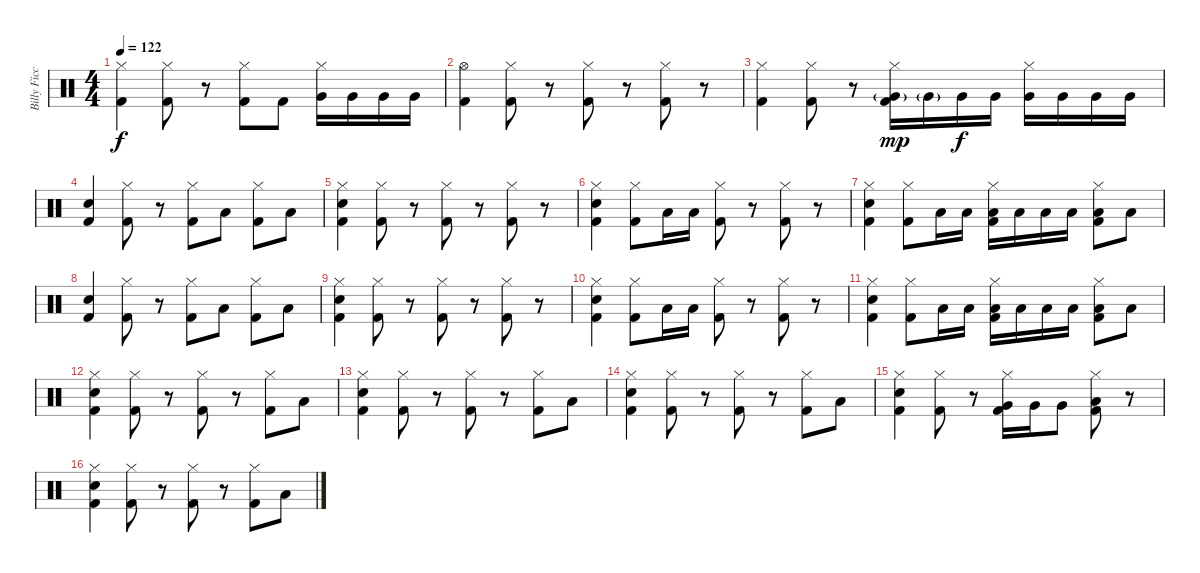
\track ("Billy Ficca" "Billy Ficc") {instrument percussion}
\staff {score}
\articulation defaults
\ts (4 4)
\tempo 122
\clef neutral
\ks c
("Hi-Hat (closed)" "Kick (hit) 2").4{dy f} ("Hi-Hat (closed)" "Kick (hit) 2").8 r.8 ("Hi-Hat (closed)" "Kick (hit) 2").8 "Kick (hit) 2".8 ("Hi-Hat (closed)" "Very Low Tom (hit)").16 "Very Low Tom (hit)".16 "Very Low Tom (hit)".16 "Very Low Tom (hit)".16 |
("Hi-Hat (open)" "Kick (hit) 2").4 ("Hi-Hat (closed)" "Kick (hit) 2").8 r.8 ("Hi-Hat (closed)" "Kick (hit) 2").8 r.8 ("Hi-Hat (closed)" "Kick (hit) 2").8 r.8 |
("Hi-Hat (closed)" "Kick (hit) 2").4 ("Hi-Hat (closed)" "Kick (hit) 2").8 r.8 ("Hi-Hat (closed)" "Very Low Tom (hit)"{g} "Kick (hit) 2").16{dy mp} "Very Low Tom (hit)"{g}.16 "Very Low Tom (hit)".16{dy f} "Very Low Tom (hit)".16 ("Hi-Hat (closed)" "Very Low Tom (hit)").16 "Very Low Tom (hit)".16 "Very Low Tom (hit)".16 "Very Low Tom (hit)".16 |
("Electric Snare (hit)" "Kick (hit) 2").4 ("Hi-Hat (closed)" "Kick (hit) 2").8 r.8 ("Hi-Hat (closed)" "Kick (hit) 2").8 "Low Floor Tom (hit)".8 ("Hi-Hat (closed)" "Kick (hit) 2").8 "Low Floor Tom (hit)".8 |
("Hi-Hat (closed)" "Electric Snare (hit)" "Kick (hit) 2").4 ("Hi-Hat (closed)" "Kick (hit) 2").8 r.8 ("Hi-Hat (closed)" "Kick (hit) 2").8 r.8 ("Hi-Hat (closed)" "Kick (hit) 2").8 r.8 |
("Hi-Hat (closed)" "Electric Snare (hit)" "Kick (hit) 2").4 ("Hi-Hat (closed)" "Kick (hit) 2").8 "Low Floor Tom (hit)".16 "Low Floor Tom (hit)".16 ("Hi-Hat (closed)" "Kick (hit) 2").8 r.8 ("Hi-Hat (closed)" "Kick (hit) 2").8 r.8 |
("Hi-Hat (closed)" "Electric Snare (hit)" "Kick (hit) 2").4 ("Hi-Hat (closed)" "Kick (hit) 2").8 "Low Floor Tom (hit)".16 "Low Floor Tom (hit)".16 ("Hi-Hat (closed)" "Low Floor Tom (hit)" "Kick (hit) 2").16 "Low Floor Tom (hit)".16 "Low Floor Tom (hit)".16 "Low Floor Tom (hit)".16 ("Hi-Hat (closed)" "Low Floor Tom (hit)" "Kick (hit) 2").8 "Low Floor Tom (hit)".8 |
("Electric Snare (hit)" "Kick (hit) 2").4 ("Hi-Hat (closed)" "Kick (hit) 2").8 r.8 ("Hi-Hat (closed)" "Kick (hit) 2").8 "Low Floor Tom (hit)".8 ("Hi-Hat (closed)" "Kick (hit) 2").8 "Low Floor Tom (hit)".8 |
("Hi-Hat (closed)" "Electric Snare (hit)" "Kick (hit) 2").4 ("Hi-Hat (closed)" "Kick (hit) 2").8 r.8 ("Hi-Hat (closed)" "Kick (hit) 2").8 r.8 ("Hi-Hat (closed)" "Kick (hit) 2").8 r.8 |
("Hi-Hat (closed)" "Electric Snare (hit)" "Kick (hit) 2").4 ("Hi-Hat (closed)" "Kick (hit) 2").8 "Low Floor Tom (hit)".16 "Low Floor Tom (hit)".16 ("Hi-Hat (closed)" "Kick (hit) 2").8 r.8 ("Hi-Hat (closed)" "Kick (hit) 2").8 r.8 |
("Hi-Hat (closed)" "Electric Snare (hit)" "Kick (hit) 2").4 ("Hi-Hat (closed)" "Kick (hit) 2").8 "Low Floor Tom (hit)".16 "Low Floor Tom (hit)".16 ("Hi-Hat (closed)" "Low Floor Tom (hit)" "Kick (hit) 2").16 "Low Floor Tom (hit)".16 "Low Floor Tom (hit)".16 "Low Floor Tom (hit)".16 ("Hi-Hat (closed)" "Low Floor Tom (hit)" "Kick (hit) 2").8 "Low Floor Tom (hit)".8 |
("Hi-Hat (closed)" "Electric Snare (hit)" "Kick (hit) 2").4 ("Hi-Hat (closed)" "Kick (hit) 2").8 r.8 ("Hi-Hat (closed)" "Kick (hit) 2").8 r.8 ("Hi-Hat (closed)" "Kick (hit) 2").8 "Low Floor Tom (hit)".8 |
("Hi-Hat (closed)" "Electric Snare (hit)" "Kick (hit) 2").4 ("Hi-Hat (closed)" "Kick (hit) 2").8 r.8 ("Hi-Hat (closed)" "Kick (hit) 2").8 r.8 ("Hi-Hat (closed)" "Kick (hit) 2").8 "Low Floor Tom (hit)".8 |
("Hi-Hat (closed)" "Electric Snare (hit)" "Kick (hit) 2").4 ("Hi-Hat (closed)" "Kick (hit) 2").8 r.8 ("Hi-Hat (closed)" "Kick (hit) 2").8 r.8 ("Hi-Hat (closed)" "Kick (hit) 2").8 "Low Floor Tom (hit)".8 |
("Hi-Hat (closed)" "Electric Snare (hit)" "Kick (hit) 2").4 ("Hi-Hat (closed)" "Kick (hit) 2").8 r.8 ("Hi-Hat (closed)" "Very Low Tom (hit)" "Kick (hit) 2").16 "Very Low Tom (hit)".16 "Very Low Tom (hit)".8 ("Hi-Hat (closed)" "Low Floor Tom (hit)" "Kick (hit) 2").8 r.8 |
("Hi-Hat (closed)" "Electric Snare (hit)" "Kick (hit) 2").4 ("Hi-Hat (closed)" "Kick (hit) 2").8 r.8 ("Hi-Hat (closed)" "Kick (hit) 2").8 r.8 ("Hi-Hat (closed)" "Kick (hit) 2").8 "Low Floor Tom (hit)".8
